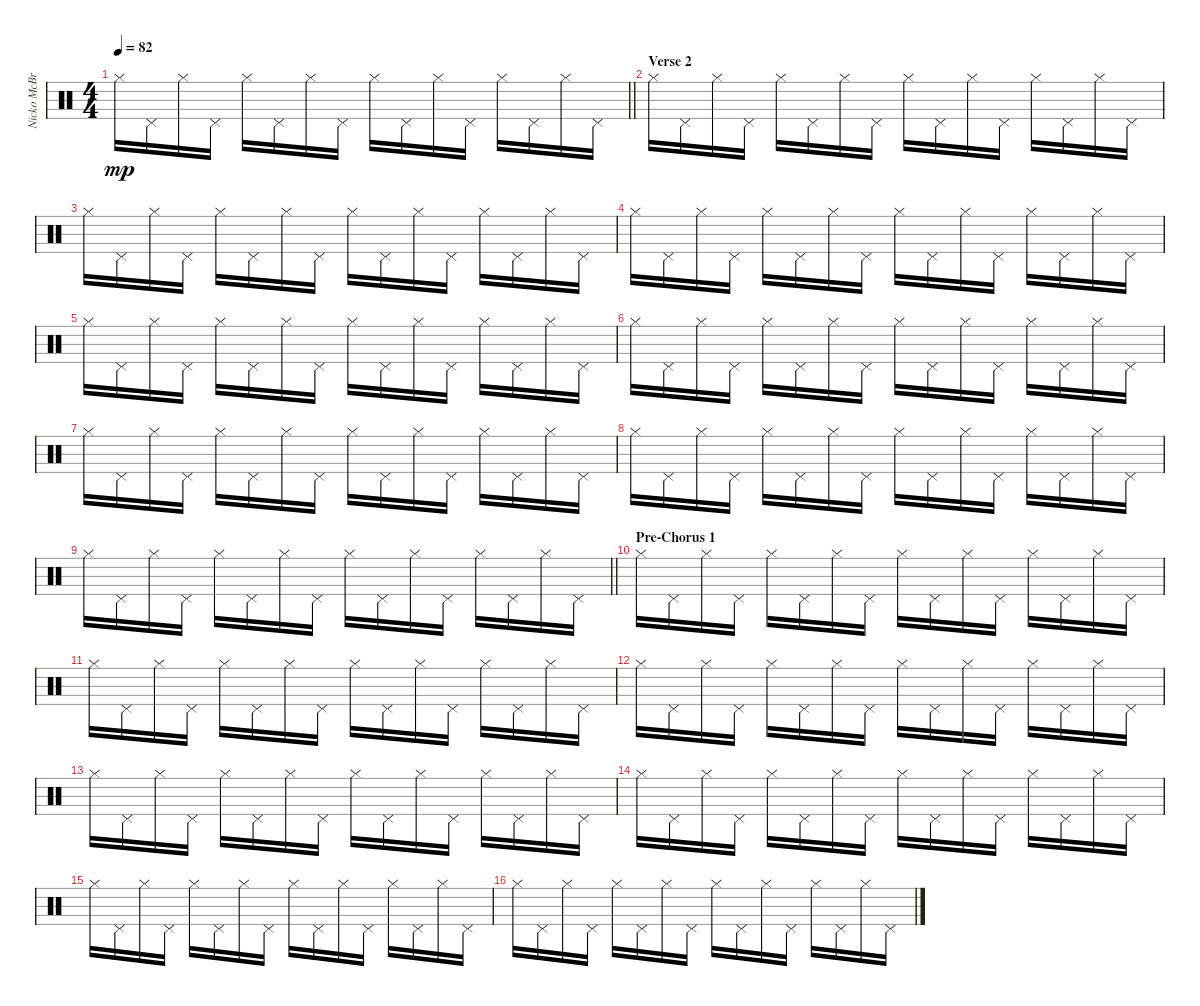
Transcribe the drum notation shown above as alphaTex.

\track ("Nicko McBrain" "Nicko McBr") {instrument percussion}
\staff {score}
\articulation defaults
\ts (4 4)
\tempo 82
\clef neutral
\barLineRight lightlight
\ks c "Hi-Hat (closed)".16{dy mp} "Pedal Hi-Hat (hit)".16 "Hi-Hat (closed)".16 "Pedal Hi-Hat (hit)".16 "Hi-Hat (closed)".16 "Pedal Hi-Hat (hit)".16 "Hi-Hat (closed)".16 "Pedal Hi-Hat (hit)".16 "Hi-Hat (closed)".16 "Pedal Hi-Hat (hit)".16 "Hi-Hat (closed)".16 "Pedal Hi-Hat (hit)".16 "Hi-Hat (closed)".16 "Pedal Hi-Hat (hit)".16 "Hi-Hat (closed)".16 "Pedal Hi-Hat (hit)".16
|
\section ("" "Verse 2")
"Hi-Hat (closed)".16 "Pedal Hi-Hat (hit)".16 "Hi-Hat (closed)".16 "Pedal Hi-Hat (hit)".16 "Hi-Hat (closed)".16 "Pedal Hi-Hat (hit)".16 "Hi-Hat (closed)".16 "Pedal Hi-Hat (hit)".16 "Hi-Hat (closed)".16 "Pedal Hi-Hat (hit)".16 "Hi-Hat (closed)".16 "Pedal Hi-Hat (hit)".16 "Hi-Hat (closed)".16 "Pedal Hi-Hat (hit)".16 "Hi-Hat (closed)".16 "Pedal Hi-Hat (hit)".16 |
"Hi-Hat (closed)".16 "Pedal Hi-Hat (hit)".16 "Hi-Hat (closed)".16 "Pedal Hi-Hat (hit)".16 "Hi-Hat (closed)".16 "Pedal Hi-Hat (hit)".16 "Hi-Hat (closed)".16 "Pedal Hi-Hat (hit)".16 "Hi-Hat (closed)".16 "Pedal Hi-Hat (hit)".16 "Hi-Hat (closed)".16 "Pedal Hi-Hat (hit)".16 "Hi-Hat (closed)".16 "Pedal Hi-Hat (hit)".16 "Hi-Hat (closed)".16 "Pedal Hi-Hat (hit)".16 |
"Hi-Hat (closed)".16 "Pedal Hi-Hat (hit)".16 "Hi-Hat (closed)".16 "Pedal Hi-Hat (hit)".16 "Hi-Hat (closed)".16 "Pedal Hi-Hat (hit)".16 "Hi-Hat (closed)".16 "Pedal Hi-Hat (hit)".16 "Hi-Hat (closed)".16 "Pedal Hi-Hat (hit)".16 "Hi-Hat (closed)".16 "Pedal Hi-Hat (hit)".16 "Hi-Hat (closed)".16 "Pedal Hi-Hat (hit)".16 "Hi-Hat (closed)".16 "Pedal Hi-Hat (hit)".16 |
"Hi-Hat (closed)".16 "Pedal Hi-Hat (hit)".16 "Hi-Hat (closed)".16 "Pedal Hi-Hat (hit)".16 "Hi-Hat (closed)".16 "Pedal Hi-Hat (hit)".16 "Hi-Hat (closed)".16 "Pedal Hi-Hat (hit)".16 "Hi-Hat (closed)".16 "Pedal Hi-Hat (hit)".16 "Hi-Hat (closed)".16 "Pedal Hi-Hat (hit)".16 "Hi-Hat (closed)".16 "Pedal Hi-Hat (hit)".16 "Hi-Hat (closed)".16 "Pedal Hi-Hat (hit)".16 |
"Hi-Hat (closed)".16 "Pedal Hi-Hat (hit)".16 "Hi-Hat (closed)".16 "Pedal Hi-Hat (hit)".16 "Hi-Hat (closed)".16 "Pedal Hi-Hat (hit)".16 "Hi-Hat (closed)".16 "Pedal Hi-Hat (hit)".16 "Hi-Hat (closed)".16 "Pedal Hi-Hat (hit)".16 "Hi-Hat (closed)".16 "Pedal Hi-Hat (hit)".16 "Hi-Hat (closed)".16 "Pedal Hi-Hat (hit)".16 "Hi-Hat (closed)".16 "Pedal Hi-Hat (hit)".16 |
"Hi-Hat (closed)".16 "Pedal Hi-Hat (hit)".16 "Hi-Hat (closed)".16 "Pedal Hi-Hat (hit)".16 "Hi-Hat (closed)".16 "Pedal Hi-Hat (hit)".16 "Hi-Hat (closed)".16 "Pedal Hi-Hat (hit)".16 "Hi-Hat (closed)".16 "Pedal Hi-Hat (hit)".16 "Hi-Hat (closed)".16 "Pedal Hi-Hat (hit)".16 "Hi-Hat (closed)".16 "Pedal Hi-Hat (hit)".16 "Hi-Hat (closed)".16 "Pedal Hi-Hat (hit)".16 |
"Hi-Hat (closed)".16 "Pedal Hi-Hat (hit)".16 "Hi-Hat (closed)".16 "Pedal Hi-Hat (hit)".16 "Hi-Hat (closed)".16 "Pedal Hi-Hat (hit)".16 "Hi-Hat (closed)".16 "Pedal Hi-Hat (hit)".16 "Hi-Hat (closed)".16 "Pedal Hi-Hat (hit)".16 "Hi-Hat (closed)".16 "Pedal Hi-Hat (hit)".16 "Hi-Hat (closed)".16 "Pedal Hi-Hat (hit)".16 "Hi-Hat (closed)".16 "Pedal Hi-Hat (hit)".16 |
\barLineRight lightlight "Hi-Hat (closed)".16 "Pedal Hi-Hat (hit)".16 "Hi-Hat (closed)".16 "Pedal Hi-Hat (hit)".16 "Hi-Hat (closed)".16 "Pedal Hi-Hat (hit)".16 "Hi-Hat (closed)".16 "Pedal Hi-Hat (hit)".16 "Hi-Hat (closed)".16 "Pedal Hi-Hat (hit)".16 "Hi-Hat (closed)".16 "Pedal Hi-Hat (hit)".16 "Hi-Hat (closed)".16 "Pedal Hi-Hat (hit)".16 "Hi-Hat (closed)".16 "Pedal Hi-Hat (hit)".16
|
\section ("" "Pre-Chorus 1")
"Hi-Hat (closed)".16 "Pedal Hi-Hat (hit)".16 "Hi-Hat (closed)".16 "Pedal Hi-Hat (hit)".16 "Hi-Hat (closed)".16 "Pedal Hi-Hat (hit)".16 "Hi-Hat (closed)".16 "Pedal Hi-Hat (hit)".16 "Hi-Hat (closed)".16 "Pedal Hi-Hat (hit)".16 "Hi-Hat (closed)".16 "Pedal Hi-Hat (hit)".16 "Hi-Hat (closed)".16 "Pedal Hi-Hat (hit)".16 "Hi-Hat (closed)".16 "Pedal Hi-Hat (hit)".16 |
"Hi-Hat (closed)".16 "Pedal Hi-Hat (hit)".16 "Hi-Hat (closed)".16 "Pedal Hi-Hat (hit)".16 "Hi-Hat (closed)".16 "Pedal Hi-Hat (hit)".16 "Hi-Hat (closed)".16 "Pedal Hi-Hat (hit)".16 "Hi-Hat (closed)".16 "Pedal Hi-Hat (hit)".16 "Hi-Hat (closed)".16 "Pedal Hi-Hat (hit)".16 "Hi-Hat (closed)".16 "Pedal Hi-Hat (hit)".16 "Hi-Hat (closed)".16 "Pedal Hi-Hat (hit)".16 |
"Hi-Hat (closed)".16 "Pedal Hi-Hat (hit)".16 "Hi-Hat (closed)".16 "Pedal Hi-Hat (hit)".16 "Hi-Hat (closed)".16 "Pedal Hi-Hat (hit)".16 "Hi-Hat (closed)".16 "Pedal Hi-Hat (hit)".16 "Hi-Hat (closed)".16 "Pedal Hi-Hat (hit)".16 "Hi-Hat (closed)".16 "Pedal Hi-Hat (hit)".16 "Hi-Hat (closed)".16 "Pedal Hi-Hat (hit)".16 "Hi-Hat (closed)".16 "Pedal Hi-Hat (hit)".16 |
"Hi-Hat (closed)".16 "Pedal Hi-Hat (hit)".16 "Hi-Hat (closed)".16 "Pedal Hi-Hat (hit)".16 "Hi-Hat (closed)".16 "Pedal Hi-Hat (hit)".16 "Hi-Hat (closed)".16 "Pedal Hi-Hat (hit)".16 "Hi-Hat (closed)".16 "Pedal Hi-Hat (hit)".16 "Hi-Hat (closed)".16 "Pedal Hi-Hat (hit)".16 "Hi-Hat (closed)".16 "Pedal Hi-Hat (hit)".16 "Hi-Hat (closed)".16 "Pedal Hi-Hat (hit)".16 |
"Hi-Hat (closed)".16 "Pedal Hi-Hat (hit)".16 "Hi-Hat (closed)".16 "Pedal Hi-Hat (hit)".16 "Hi-Hat (closed)".16 "Pedal Hi-Hat (hit)".16 "Hi-Hat (closed)".16 "Pedal Hi-Hat (hit)".16 "Hi-Hat (closed)".16 "Pedal Hi-Hat (hit)".16 "Hi-Hat (closed)".16 "Pedal Hi-Hat (hit)".16 "Hi-Hat (closed)".16 "Pedal Hi-Hat (hit)".16 "Hi-Hat (closed)".16 "Pedal Hi-Hat (hit)".16 |
"Hi-Hat (closed)".16 "Pedal Hi-Hat (hit)".16 "Hi-Hat (closed)".16 "Pedal Hi-Hat (hit)".16 "Hi-Hat (closed)".16 "Pedal Hi-Hat (hit)".16 "Hi-Hat (closed)".16 "Pedal Hi-Hat (hit)".16 "Hi-Hat (closed)".16 "Pedal Hi-Hat (hit)".16 "Hi-Hat (closed)".16 "Pedal Hi-Hat (hit)".16 "Hi-Hat (closed)".16 "Pedal Hi-Hat (hit)".16 "Hi-Hat (closed)".16 "Pedal Hi-Hat (hit)".16 |
"Hi-Hat (closed)".16 "Pedal Hi-Hat (hit)".16 "Hi-Hat (closed)".16 "Pedal Hi-Hat (hit)".16 "Hi-Hat (closed)".16 "Pedal Hi-Hat (hit)".16 "Hi-Hat (closed)".16 "Pedal Hi-Hat (hit)".16 "Hi-Hat (closed)".16 "Pedal Hi-Hat (hit)".16 "Hi-Hat (closed)".16 "Pedal Hi-Hat (hit)".16 "Hi-Hat (closed)".16 "Pedal Hi-Hat (hit)".16 "Hi-Hat (closed)".16 "Pedal Hi-Hat (hit)".16
